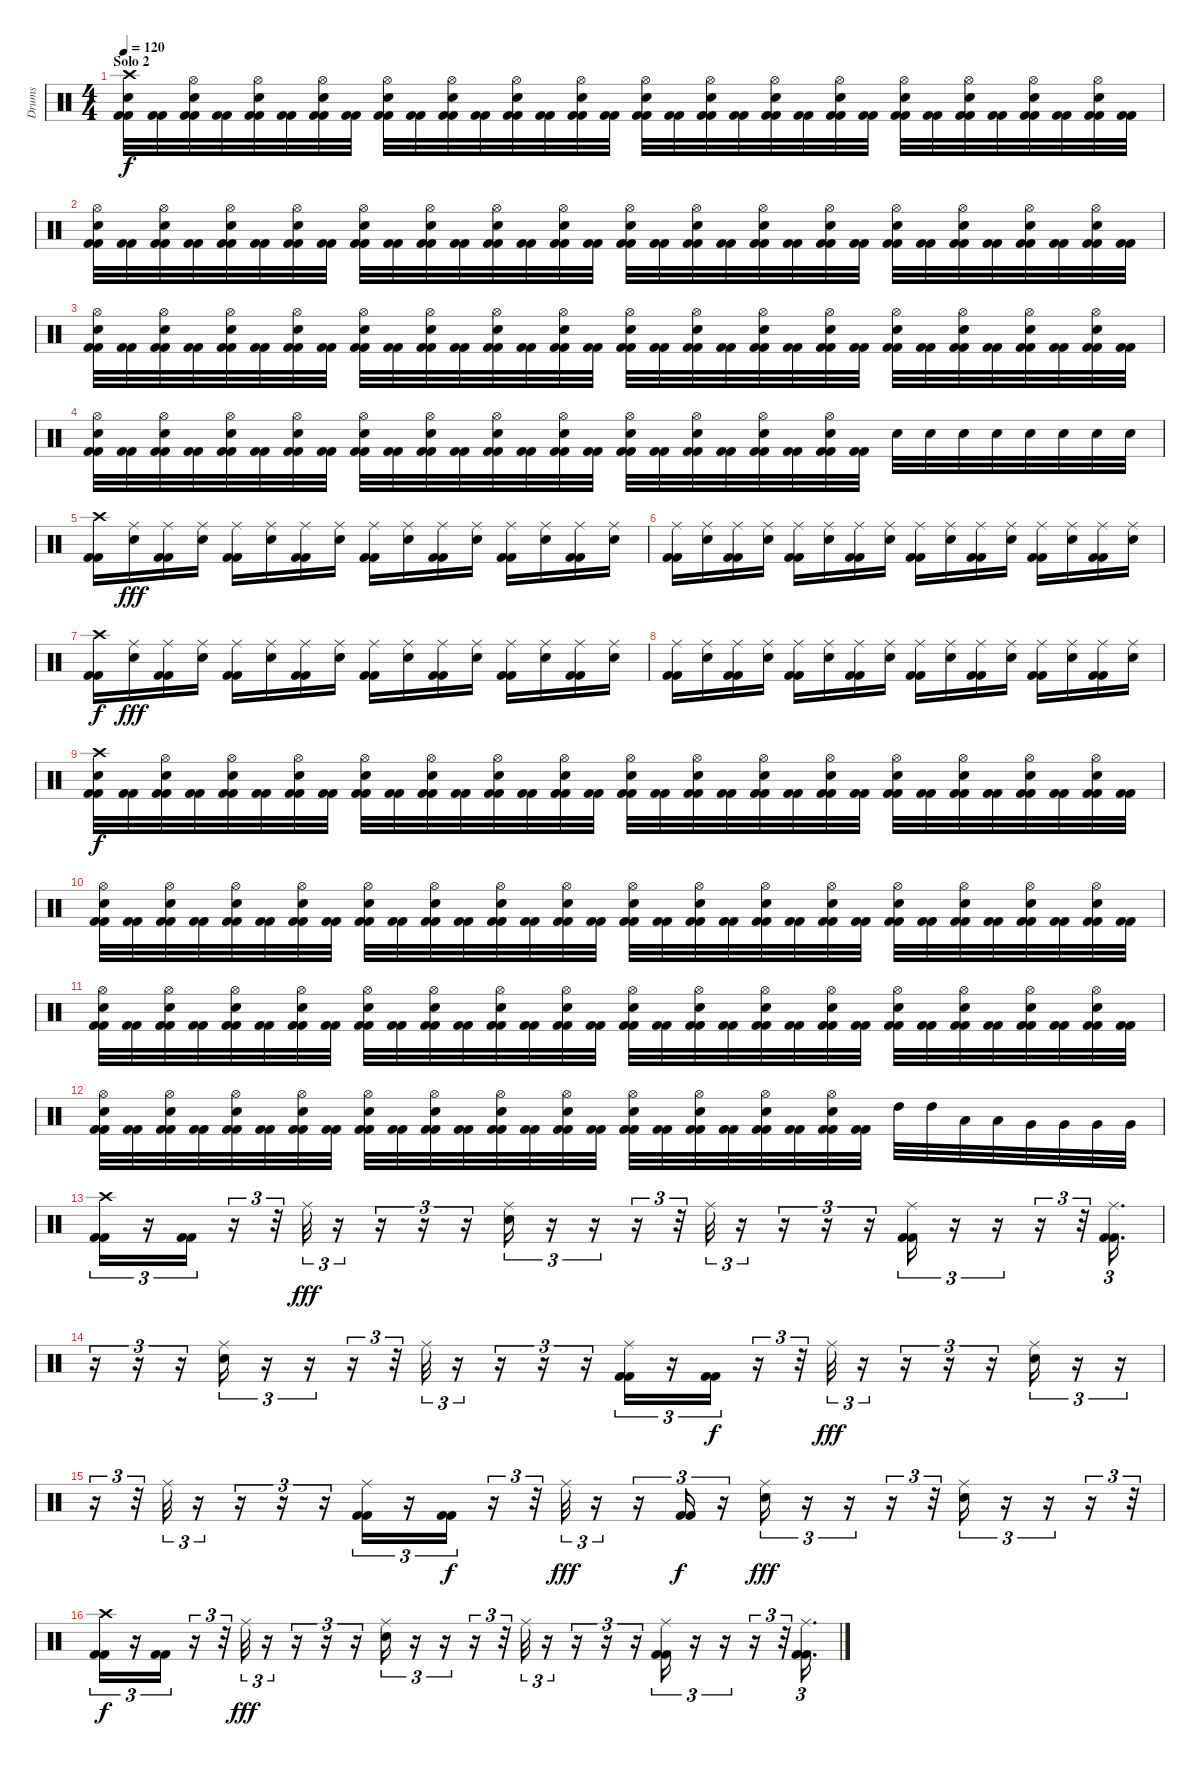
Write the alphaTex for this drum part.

\track ("Drums" "Drums") {instrument percussion}
\staff {score}
\articulation defaults
\ts (4 4)
\section ("" "Solo 2")
\tempo 120
\clef neutral
\ks c
("Kick (hit) 2" "Kick (hit) 2" "Electric Snare (hit)" "Crash high (hit)").32{dy f} ("Kick (hit) 2" "Kick (hit) 2").32 ("Kick (hit) 2" "Kick (hit) 2" "Electric Snare (hit)" "Hi-Hat (open)").32 ("Kick (hit) 2" "Kick (hit) 2").32 ("Kick (hit) 2" "Kick (hit) 2" "Electric Snare (hit)" "Hi-Hat (open)").32 ("Kick (hit) 2" "Kick (hit) 2").32 ("Kick (hit) 2" "Kick (hit) 2" "Electric Snare (hit)" "Hi-Hat (open)").32 ("Kick (hit) 2" "Kick (hit) 2").32 ("Kick (hit) 2" "Kick (hit) 2" "Electric Snare (hit)" "Hi-Hat (open)").32 ("Kick (hit) 2" "Kick (hit) 2").32 ("Kick (hit) 2" "Kick (hit) 2" "Electric Snare (hit)" "Hi-Hat (open)").32 ("Kick (hit) 2" "Kick (hit) 2").32 ("Kick (hit) 2" "Kick (hit) 2" "Electric Snare (hit)" "Hi-Hat (open)").32 ("Kick (hit) 2" "Kick (hit) 2").32 ("Kick (hit) 2" "Kick (hit) 2" "Electric Snare (hit)" "Hi-Hat (open)").32 ("Kick (hit) 2" "Kick (hit) 2").32 ("Kick (hit) 2" "Kick (hit) 2" "Electric Snare (hit)" "Hi-Hat (open)").32 ("Kick (hit) 2" "Kick (hit) 2").32 ("Kick (hit) 2" "Kick (hit) 2" "Electric Snare (hit)" "Hi-Hat (open)").32 ("Kick (hit) 2" "Kick (hit) 2").32 ("Kick (hit) 2" "Kick (hit) 2" "Electric Snare (hit)" "Hi-Hat (open)").32 ("Kick (hit) 2" "Kick (hit) 2").32 ("Kick (hit) 2" "Kick (hit) 2" "Electric Snare (hit)" "Hi-Hat (open)").32 ("Kick (hit) 2" "Kick (hit) 2").32 ("Kick (hit) 2" "Kick (hit) 2" "Electric Snare (hit)" "Hi-Hat (open)").32 ("Kick (hit) 2" "Kick (hit) 2").32 ("Kick (hit) 2" "Kick (hit) 2" "Electric Snare (hit)" "Hi-Hat (open)").32 ("Kick (hit) 2" "Kick (hit) 2").32 ("Kick (hit) 2" "Kick (hit) 2" "Electric Snare (hit)" "Hi-Hat (open)").32 ("Kick (hit) 2" "Kick (hit) 2").32 ("Kick (hit) 2" "Kick (hit) 2" "Electric Snare (hit)" "Hi-Hat (open)").32 ("Kick (hit) 2" "Kick (hit) 2").32 |
("Kick (hit) 2" "Kick (hit) 2" "Electric Snare (hit)" "Hi-Hat (open)").32 ("Kick (hit) 2" "Kick (hit) 2").32 ("Kick (hit) 2" "Kick (hit) 2" "Electric Snare (hit)" "Hi-Hat (open)").32 ("Kick (hit) 2" "Kick (hit) 2").32 ("Kick (hit) 2" "Kick (hit) 2" "Electric Snare (hit)" "Hi-Hat (open)").32 ("Kick (hit) 2" "Kick (hit) 2").32 ("Kick (hit) 2" "Kick (hit) 2" "Electric Snare (hit)" "Hi-Hat (open)").32 ("Kick (hit) 2" "Kick (hit) 2").32 ("Kick (hit) 2" "Kick (hit) 2" "Electric Snare (hit)" "Hi-Hat (open)").32 ("Kick (hit) 2" "Kick (hit) 2").32 ("Kick (hit) 2" "Kick (hit) 2" "Electric Snare (hit)" "Hi-Hat (open)").32 ("Kick (hit) 2" "Kick (hit) 2").32 ("Kick (hit) 2" "Kick (hit) 2" "Electric Snare (hit)" "Hi-Hat (open)").32 ("Kick (hit) 2" "Kick (hit) 2").32 ("Kick (hit) 2" "Kick (hit) 2" "Electric Snare (hit)" "Hi-Hat (open)").32 ("Kick (hit) 2" "Kick (hit) 2").32 ("Kick (hit) 2" "Kick (hit) 2" "Electric Snare (hit)" "Hi-Hat (open)").32 ("Kick (hit) 2" "Kick (hit) 2").32 ("Kick (hit) 2" "Kick (hit) 2" "Electric Snare (hit)" "Hi-Hat (open)").32 ("Kick (hit) 2" "Kick (hit) 2").32 ("Kick (hit) 2" "Kick (hit) 2" "Electric Snare (hit)" "Hi-Hat (open)").32 ("Kick (hit) 2" "Kick (hit) 2").32 ("Kick (hit) 2" "Kick (hit) 2" "Electric Snare (hit)" "Hi-Hat (open)").32 ("Kick (hit) 2" "Kick (hit) 2").32 ("Kick (hit) 2" "Kick (hit) 2" "Electric Snare (hit)" "Hi-Hat (open)").32 ("Kick (hit) 2" "Kick (hit) 2").32 ("Kick (hit) 2" "Kick (hit) 2" "Electric Snare (hit)" "Hi-Hat (open)").32 ("Kick (hit) 2" "Kick (hit) 2").32 ("Kick (hit) 2" "Kick (hit) 2" "Electric Snare (hit)" "Hi-Hat (open)").32 ("Kick (hit) 2" "Kick (hit) 2").32 ("Kick (hit) 2" "Kick (hit) 2" "Electric Snare (hit)" "Hi-Hat (open)").32 ("Kick (hit) 2" "Kick (hit) 2").32 |
("Kick (hit) 2" "Kick (hit) 2" "Electric Snare (hit)" "Hi-Hat (open)").32 ("Kick (hit) 2" "Kick (hit) 2").32 ("Kick (hit) 2" "Kick (hit) 2" "Electric Snare (hit)" "Hi-Hat (open)").32 ("Kick (hit) 2" "Kick (hit) 2").32 ("Kick (hit) 2" "Kick (hit) 2" "Electric Snare (hit)" "Hi-Hat (open)").32 ("Kick (hit) 2" "Kick (hit) 2").32 ("Kick (hit) 2" "Kick (hit) 2" "Electric Snare (hit)" "Hi-Hat (open)").32 ("Kick (hit) 2" "Kick (hit) 2").32 ("Kick (hit) 2" "Kick (hit) 2" "Electric Snare (hit)" "Hi-Hat (open)").32 ("Kick (hit) 2" "Kick (hit) 2").32 ("Kick (hit) 2" "Kick (hit) 2" "Electric Snare (hit)" "Hi-Hat (open)").32 ("Kick (hit) 2" "Kick (hit) 2").32 ("Kick (hit) 2" "Kick (hit) 2" "Electric Snare (hit)" "Hi-Hat (open)").32 ("Kick (hit) 2" "Kick (hit) 2").32 ("Kick (hit) 2" "Kick (hit) 2" "Electric Snare (hit)" "Hi-Hat (open)").32 ("Kick (hit) 2" "Kick (hit) 2").32 ("Kick (hit) 2" "Kick (hit) 2" "Electric Snare (hit)" "Hi-Hat (open)").32 ("Kick (hit) 2" "Kick (hit) 2").32 ("Kick (hit) 2" "Kick (hit) 2" "Electric Snare (hit)" "Hi-Hat (open)").32 ("Kick (hit) 2" "Kick (hit) 2").32 ("Kick (hit) 2" "Kick (hit) 2" "Electric Snare (hit)" "Hi-Hat (open)").32 ("Kick (hit) 2" "Kick (hit) 2").32 ("Kick (hit) 2" "Kick (hit) 2" "Electric Snare (hit)" "Hi-Hat (open)").32 ("Kick (hit) 2" "Kick (hit) 2").32 ("Kick (hit) 2" "Kick (hit) 2" "Electric Snare (hit)" "Hi-Hat (open)").32 ("Kick (hit) 2" "Kick (hit) 2").32 ("Kick (hit) 2" "Kick (hit) 2" "Electric Snare (hit)" "Hi-Hat (open)").32 ("Kick (hit) 2" "Kick (hit) 2").32 ("Kick (hit) 2" "Kick (hit) 2" "Electric Snare (hit)" "Hi-Hat (open)").32 ("Kick (hit) 2" "Kick (hit) 2").32 ("Kick (hit) 2" "Kick (hit) 2" "Electric Snare (hit)" "Hi-Hat (open)").32 ("Kick (hit) 2" "Kick (hit) 2").32 |
("Kick (hit) 2" "Kick (hit) 2" "Electric Snare (hit)" "Hi-Hat (open)").32 ("Kick (hit) 2" "Kick (hit) 2").32 ("Kick (hit) 2" "Kick (hit) 2" "Electric Snare (hit)" "Hi-Hat (open)").32 ("Kick (hit) 2" "Kick (hit) 2").32 ("Kick (hit) 2" "Kick (hit) 2" "Electric Snare (hit)" "Hi-Hat (open)").32 ("Kick (hit) 2" "Kick (hit) 2").32 ("Kick (hit) 2" "Kick (hit) 2" "Electric Snare (hit)" "Hi-Hat (open)").32 ("Kick (hit) 2" "Kick (hit) 2").32 ("Kick (hit) 2" "Kick (hit) 2" "Electric Snare (hit)" "Hi-Hat (open)").32 ("Kick (hit) 2" "Kick (hit) 2").32 ("Kick (hit) 2" "Kick (hit) 2" "Electric Snare (hit)" "Hi-Hat (open)").32 ("Kick (hit) 2" "Kick (hit) 2").32 ("Kick (hit) 2" "Kick (hit) 2" "Electric Snare (hit)" "Hi-Hat (open)").32 ("Kick (hit) 2" "Kick (hit) 2").32 ("Kick (hit) 2" "Kick (hit) 2" "Electric Snare (hit)" "Hi-Hat (open)").32 ("Kick (hit) 2" "Kick (hit) 2").32 ("Kick (hit) 2" "Kick (hit) 2" "Electric Snare (hit)" "Hi-Hat (open)").32 ("Kick (hit) 2" "Kick (hit) 2").32 ("Kick (hit) 2" "Kick (hit) 2" "Electric Snare (hit)" "Hi-Hat (open)").32 ("Kick (hit) 2" "Kick (hit) 2").32 ("Kick (hit) 2" "Kick (hit) 2" "Electric Snare (hit)" "Hi-Hat (open)").32 ("Kick (hit) 2" "Kick (hit) 2").32 ("Kick (hit) 2" "Kick (hit) 2" "Electric Snare (hit)" "Hi-Hat (open)").32 ("Kick (hit) 2" "Kick (hit) 2").32 "Electric Snare (hit)".32 "Electric Snare (hit)".32 "Electric Snare (hit)".32 "Electric Snare (hit)".32 "Electric Snare (hit)".32 "Electric Snare (hit)".32 "Electric Snare (hit)".32 "Electric Snare (hit)".32 |
("Kick (hit) 2" "Kick (hit) 2" "Crash high (hit)").16 ("Electric Snare (hit)" "Ride (middle)").16{dy fff} ("Kick (hit) 2" "Kick (hit) 2" "Ride (middle)").16 ("Electric Snare (hit)" "Ride (middle)").16 ("Kick (hit) 2" "Kick (hit) 2" "Ride (middle)").16 ("Electric Snare (hit)" "Ride (middle)").16 ("Kick (hit) 2" "Kick (hit) 2" "Ride (middle)").16 ("Electric Snare (hit)" "Ride (middle)").16 ("Kick (hit) 2" "Kick (hit) 2" "Ride (middle)").16 ("Electric Snare (hit)" "Ride (middle)").16 ("Kick (hit) 2" "Kick (hit) 2" "Ride (middle)").16 ("Electric Snare (hit)" "Ride (middle)").16 ("Kick (hit) 2" "Kick (hit) 2" "Ride (middle)").16 ("Electric Snare (hit)" "Ride (middle)").16 ("Kick (hit) 2" "Kick (hit) 2" "Ride (middle)").16 ("Electric Snare (hit)" "Ride (middle)").16 |
("Kick (hit) 2" "Kick (hit) 2" "Ride (middle)").16 ("Electric Snare (hit)" "Ride (middle)").16 ("Kick (hit) 2" "Kick (hit) 2" "Ride (middle)").16 ("Electric Snare (hit)" "Ride (middle)").16 ("Kick (hit) 2" "Kick (hit) 2" "Ride (middle)").16 ("Electric Snare (hit)" "Ride (middle)").16 ("Kick (hit) 2" "Kick (hit) 2" "Ride (middle)").16 ("Electric Snare (hit)" "Ride (middle)").16 ("Kick (hit) 2" "Kick (hit) 2" "Ride (middle)").16 ("Electric Snare (hit)" "Ride (middle)").16 ("Kick (hit) 2" "Kick (hit) 2" "Ride (middle)").16 ("Electric Snare (hit)" "Ride (middle)").16 ("Kick (hit) 2" "Kick (hit) 2" "Ride (middle)").16 ("Electric Snare (hit)" "Ride (middle)").16 ("Kick (hit) 2" "Kick (hit) 2" "Ride (middle)").16 ("Electric Snare (hit)" "Ride (middle)").16 |
("Kick (hit) 2" "Kick (hit) 2" "Crash high (hit)").16{dy f} ("Electric Snare (hit)" "Ride (middle)").16{dy fff} ("Kick (hit) 2" "Kick (hit) 2" "Ride (middle)").16 ("Electric Snare (hit)" "Ride (middle)").16 ("Kick (hit) 2" "Kick (hit) 2" "Ride (middle)").16 ("Electric Snare (hit)" "Ride (middle)").16 ("Kick (hit) 2" "Kick (hit) 2" "Ride (middle)").16 ("Electric Snare (hit)" "Ride (middle)").16 ("Kick (hit) 2" "Kick (hit) 2" "Ride (middle)").16 ("Electric Snare (hit)" "Ride (middle)").16 ("Kick (hit) 2" "Kick (hit) 2" "Ride (middle)").16 ("Electric Snare (hit)" "Ride (middle)").16 ("Kick (hit) 2" "Kick (hit) 2" "Ride (middle)").16 ("Electric Snare (hit)" "Ride (middle)").16 ("Kick (hit) 2" "Kick (hit) 2" "Ride (middle)").16 ("Electric Snare (hit)" "Ride (middle)").16 |
("Kick (hit) 2" "Kick (hit) 2" "Ride (middle)").16 ("Electric Snare (hit)" "Ride (middle)").16 ("Kick (hit) 2" "Kick (hit) 2" "Ride (middle)").16 ("Electric Snare (hit)" "Ride (middle)").16 ("Kick (hit) 2" "Kick (hit) 2" "Ride (middle)").16 ("Electric Snare (hit)" "Ride (middle)").16 ("Kick (hit) 2" "Kick (hit) 2" "Ride (middle)").16 ("Electric Snare (hit)" "Ride (middle)").16 ("Kick (hit) 2" "Kick (hit) 2" "Ride (middle)").16 ("Electric Snare (hit)" "Ride (middle)").16 ("Kick (hit) 2" "Kick (hit) 2" "Ride (middle)").16 ("Electric Snare (hit)" "Ride (middle)").16 ("Kick (hit) 2" "Kick (hit) 2" "Ride (middle)").16 ("Electric Snare (hit)" "Ride (middle)").16 ("Kick (hit) 2" "Kick (hit) 2" "Ride (middle)").16 ("Electric Snare (hit)" "Ride (middle)").16 |
("Kick (hit) 2" "Kick (hit) 2" "Electric Snare (hit)" "Crash high (hit)").32{dy f} ("Kick (hit) 2" "Kick (hit) 2").32 ("Kick (hit) 2" "Kick (hit) 2" "Electric Snare (hit)" "Hi-Hat (open)").32 ("Kick (hit) 2" "Kick (hit) 2").32 ("Kick (hit) 2" "Kick (hit) 2" "Electric Snare (hit)" "Hi-Hat (open)").32 ("Kick (hit) 2" "Kick (hit) 2").32 ("Kick (hit) 2" "Kick (hit) 2" "Electric Snare (hit)" "Hi-Hat (open)").32 ("Kick (hit) 2" "Kick (hit) 2").32 ("Kick (hit) 2" "Kick (hit) 2" "Electric Snare (hit)" "Hi-Hat (open)").32 ("Kick (hit) 2" "Kick (hit) 2").32 ("Kick (hit) 2" "Kick (hit) 2" "Electric Snare (hit)" "Hi-Hat (open)").32 ("Kick (hit) 2" "Kick (hit) 2").32 ("Kick (hit) 2" "Kick (hit) 2" "Electric Snare (hit)" "Hi-Hat (open)").32 ("Kick (hit) 2" "Kick (hit) 2").32 ("Kick (hit) 2" "Kick (hit) 2" "Electric Snare (hit)" "Hi-Hat (open)").32 ("Kick (hit) 2" "Kick (hit) 2").32 ("Kick (hit) 2" "Kick (hit) 2" "Electric Snare (hit)" "Hi-Hat (open)").32 ("Kick (hit) 2" "Kick (hit) 2").32 ("Kick (hit) 2" "Kick (hit) 2" "Electric Snare (hit)" "Hi-Hat (open)").32 ("Kick (hit) 2" "Kick (hit) 2").32 ("Kick (hit) 2" "Kick (hit) 2" "Electric Snare (hit)" "Hi-Hat (open)").32 ("Kick (hit) 2" "Kick (hit) 2").32 ("Kick (hit) 2" "Kick (hit) 2" "Electric Snare (hit)" "Hi-Hat (open)").32 ("Kick (hit) 2" "Kick (hit) 2").32 ("Kick (hit) 2" "Kick (hit) 2" "Electric Snare (hit)" "Hi-Hat (open)").32 ("Kick (hit) 2" "Kick (hit) 2").32 ("Kick (hit) 2" "Kick (hit) 2" "Electric Snare (hit)" "Hi-Hat (open)").32 ("Kick (hit) 2" "Kick (hit) 2").32 ("Kick (hit) 2" "Kick (hit) 2" "Electric Snare (hit)" "Hi-Hat (open)").32 ("Kick (hit) 2" "Kick (hit) 2").32 ("Kick (hit) 2" "Kick (hit) 2" "Electric Snare (hit)" "Hi-Hat (open)").32 ("Kick (hit) 2" "Kick (hit) 2").32 |
("Kick (hit) 2" "Kick (hit) 2" "Electric Snare (hit)" "Hi-Hat (open)").32 ("Kick (hit) 2" "Kick (hit) 2").32 ("Kick (hit) 2" "Kick (hit) 2" "Electric Snare (hit)" "Hi-Hat (open)").32 ("Kick (hit) 2" "Kick (hit) 2").32 ("Kick (hit) 2" "Kick (hit) 2" "Electric Snare (hit)" "Hi-Hat (open)").32 ("Kick (hit) 2" "Kick (hit) 2").32 ("Kick (hit) 2" "Kick (hit) 2" "Electric Snare (hit)" "Hi-Hat (open)").32 ("Kick (hit) 2" "Kick (hit) 2").32 ("Kick (hit) 2" "Kick (hit) 2" "Electric Snare (hit)" "Hi-Hat (open)").32 ("Kick (hit) 2" "Kick (hit) 2").32 ("Kick (hit) 2" "Kick (hit) 2" "Electric Snare (hit)" "Hi-Hat (open)").32 ("Kick (hit) 2" "Kick (hit) 2").32 ("Kick (hit) 2" "Kick (hit) 2" "Electric Snare (hit)" "Hi-Hat (open)").32 ("Kick (hit) 2" "Kick (hit) 2").32 ("Kick (hit) 2" "Kick (hit) 2" "Electric Snare (hit)" "Hi-Hat (open)").32 ("Kick (hit) 2" "Kick (hit) 2").32 ("Kick (hit) 2" "Kick (hit) 2" "Electric Snare (hit)" "Hi-Hat (open)").32 ("Kick (hit) 2" "Kick (hit) 2").32 ("Kick (hit) 2" "Kick (hit) 2" "Electric Snare (hit)" "Hi-Hat (open)").32 ("Kick (hit) 2" "Kick (hit) 2").32 ("Kick (hit) 2" "Kick (hit) 2" "Electric Snare (hit)" "Hi-Hat (open)").32 ("Kick (hit) 2" "Kick (hit) 2").32 ("Kick (hit) 2" "Kick (hit) 2" "Electric Snare (hit)" "Hi-Hat (open)").32 ("Kick (hit) 2" "Kick (hit) 2").32 ("Kick (hit) 2" "Kick (hit) 2" "Electric Snare (hit)" "Hi-Hat (open)").32 ("Kick (hit) 2" "Kick (hit) 2").32 ("Kick (hit) 2" "Kick (hit) 2" "Electric Snare (hit)" "Hi-Hat (open)").32 ("Kick (hit) 2" "Kick (hit) 2").32 ("Kick (hit) 2" "Kick (hit) 2" "Electric Snare (hit)" "Hi-Hat (open)").32 ("Kick (hit) 2" "Kick (hit) 2").32 ("Kick (hit) 2" "Kick (hit) 2" "Electric Snare (hit)" "Hi-Hat (open)").32 ("Kick (hit) 2" "Kick (hit) 2").32 |
("Kick (hit) 2" "Kick (hit) 2" "Electric Snare (hit)" "Hi-Hat (open)").32 ("Kick (hit) 2" "Kick (hit) 2").32 ("Kick (hit) 2" "Kick (hit) 2" "Electric Snare (hit)" "Hi-Hat (open)").32 ("Kick (hit) 2" "Kick (hit) 2").32 ("Kick (hit) 2" "Kick (hit) 2" "Electric Snare (hit)" "Hi-Hat (open)").32 ("Kick (hit) 2" "Kick (hit) 2").32 ("Kick (hit) 2" "Kick (hit) 2" "Electric Snare (hit)" "Hi-Hat (open)").32 ("Kick (hit) 2" "Kick (hit) 2").32 ("Kick (hit) 2" "Kick (hit) 2" "Electric Snare (hit)" "Hi-Hat (open)").32 ("Kick (hit) 2" "Kick (hit) 2").32 ("Kick (hit) 2" "Kick (hit) 2" "Electric Snare (hit)" "Hi-Hat (open)").32 ("Kick (hit) 2" "Kick (hit) 2").32 ("Kick (hit) 2" "Kick (hit) 2" "Electric Snare (hit)" "Hi-Hat (open)").32 ("Kick (hit) 2" "Kick (hit) 2").32 ("Kick (hit) 2" "Kick (hit) 2" "Electric Snare (hit)" "Hi-Hat (open)").32 ("Kick (hit) 2" "Kick (hit) 2").32 ("Kick (hit) 2" "Kick (hit) 2" "Electric Snare (hit)" "Hi-Hat (open)").32 ("Kick (hit) 2" "Kick (hit) 2").32 ("Kick (hit) 2" "Kick (hit) 2" "Electric Snare (hit)" "Hi-Hat (open)").32 ("Kick (hit) 2" "Kick (hit) 2").32 ("Kick (hit) 2" "Kick (hit) 2" "Electric Snare (hit)" "Hi-Hat (open)").32 ("Kick (hit) 2" "Kick (hit) 2").32 ("Kick (hit) 2" "Kick (hit) 2" "Electric Snare (hit)" "Hi-Hat (open)").32 ("Kick (hit) 2" "Kick (hit) 2").32 ("Kick (hit) 2" "Kick (hit) 2" "Electric Snare (hit)" "Hi-Hat (open)").32 ("Kick (hit) 2" "Kick (hit) 2").32 ("Kick (hit) 2" "Kick (hit) 2" "Electric Snare (hit)" "Hi-Hat (open)").32 ("Kick (hit) 2" "Kick (hit) 2").32 ("Kick (hit) 2" "Kick (hit) 2" "Electric Snare (hit)" "Hi-Hat (open)").32 ("Kick (hit) 2" "Kick (hit) 2").32 ("Kick (hit) 2" "Kick (hit) 2" "Electric Snare (hit)" "Hi-Hat (open)").32 ("Kick (hit) 2" "Kick (hit) 2").32 |
("Kick (hit) 2" "Kick (hit) 2" "Electric Snare (hit)" "Hi-Hat (open)").32 ("Kick (hit) 2" "Kick (hit) 2").32 ("Kick (hit) 2" "Kick (hit) 2" "Electric Snare (hit)" "Hi-Hat (open)").32 ("Kick (hit) 2" "Kick (hit) 2").32 ("Kick (hit) 2" "Kick (hit) 2" "Electric Snare (hit)" "Hi-Hat (open)").32 ("Kick (hit) 2" "Kick (hit) 2").32 ("Kick (hit) 2" "Kick (hit) 2" "Electric Snare (hit)" "Hi-Hat (open)").32 ("Kick (hit) 2" "Kick (hit) 2").32 ("Kick (hit) 2" "Kick (hit) 2" "Electric Snare (hit)" "Hi-Hat (open)").32 ("Kick (hit) 2" "Kick (hit) 2").32 ("Kick (hit) 2" "Kick (hit) 2" "Electric Snare (hit)" "Hi-Hat (open)").32 ("Kick (hit) 2" "Kick (hit) 2").32 ("Kick (hit) 2" "Kick (hit) 2" "Electric Snare (hit)" "Hi-Hat (open)").32 ("Kick (hit) 2" "Kick (hit) 2").32 ("Kick (hit) 2" "Kick (hit) 2" "Electric Snare (hit)" "Hi-Hat (open)").32 ("Kick (hit) 2" "Kick (hit) 2").32 ("Kick (hit) 2" "Kick (hit) 2" "Electric Snare (hit)" "Hi-Hat (open)").32 ("Kick (hit) 2" "Kick (hit) 2").32 ("Kick (hit) 2" "Kick (hit) 2" "Electric Snare (hit)" "Hi-Hat (open)").32 ("Kick (hit) 2" "Kick (hit) 2").32 ("Kick (hit) 2" "Kick (hit) 2" "Electric Snare (hit)" "Hi-Hat (open)").32 ("Kick (hit) 2" "Kick (hit) 2").32 ("Kick (hit) 2" "Kick (hit) 2" "Electric Snare (hit)" "Hi-Hat (open)").32 ("Kick (hit) 2" "Kick (hit) 2").32 "High Tom (hit)".32 "High Tom (hit)".32 "Low Tom (hit)".32 "Low Tom (hit)".32 "Very Low Tom (hit)".32 "Very Low Tom (hit)".32 "Very Low Tom (hit)".32 "Very Low Tom (hit)".32 |
("Kick (hit) 2" "Kick (hit) 2" "Crash high (hit)").16{tu (3 2)} r.16{tu (3 2)} ("Kick (hit) 2" "Kick (hit) 2").16{tu (3 2)} r.16{tu (3 2)} r.32{tu (3 2)} "Ride (middle)".32{tu (3 2) dy fff} r.16{tu (3 2)} r.16{tu (3 2)} r.16{tu (3 2)} r.16{tu (3 2)} ("Electric Snare (hit)" "Ride (middle)").16{tu (3 2)} r.16{tu (3 2)} r.16{tu (3 2)} r.16{tu (3 2)} r.32{tu (3 2)} "Ride (middle)".32{tu (3 2)} r.16{tu (3 2)} r.16{tu (3 2)} r.16{tu (3 2)} r.16{tu (3 2)} ("Kick (hit) 2" "Kick (hit) 2" "Ride (middle)").16{tu (3 2)} r.16{tu (3 2)} r.16{tu (3 2)} r.16{tu (3 2)} r.32{tu (3 2)} ("Kick (hit) 2" "Kick (hit) 2" "Ride (middle)").16{d tu (3 2)} |
r.16{tu (3 2)} r.16{tu (3 2)} r.16{tu (3 2)} ("Electric Snare (hit)" "Ride (middle)").16{tu (3 2)} r.16{tu (3 2)} r.16{tu (3 2)} r.16{tu (3 2)} r.32{tu (3 2)} "Ride (middle)".32{tu (3 2)} r.16{tu (3 2)} r.16{tu (3 2)} r.16{tu (3 2)} r.16{tu (3 2)} ("Kick (hit) 2" "Kick (hit) 2" "Ride (middle)").16{tu (3 2)} r.16{tu (3 2)} ("Kick (hit) 2" "Kick (hit) 2").16{tu (3 2) dy f} r.16{tu (3 2)} r.32{tu (3 2)} "Ride (middle)".32{tu (3 2) dy fff} r.16{tu (3 2)} r.16{tu (3 2)} r.16{tu (3 2)} r.16{tu (3 2)} ("Electric Snare (hit)" "Ride (middle)").16{tu (3 2)} r.16{tu (3 2)} r.16{tu (3 2)} |
r.16{tu (3 2)} r.32{tu (3 2)} "Ride (middle)".32{tu (3 2)} r.16{tu (3 2)} r.16{tu (3 2)} r.16{tu (3 2)} r.16{tu (3 2)} ("Kick (hit) 2" "Kick (hit) 2" "Ride (middle)").16{tu (3 2)} r.16{tu (3 2)} ("Kick (hit) 2" "Kick (hit) 2").16{tu (3 2) dy f} r.16{tu (3 2)} r.32{tu (3 2)} "Ride (middle)".32{tu (3 2) dy fff} r.16{tu (3 2)} r.16{tu (3 2)} ("Kick (hit) 2" "Kick (hit) 2").16{tu (3 2) dy f} r.16{tu (3 2)} ("Electric Snare (hit)" "Ride (middle)").16{tu (3 2) dy fff} r.16{tu (3 2)} r.16{tu (3 2)} r.16{tu (3 2)} r.32{tu (3 2)} ("Electric Snare (hit)" "Ride (middle)").16{tu (3 2)} r.16{tu (3 2)} r.16{tu (3 2)} r.16{tu (3 2)} r.32{tu (3 2)} |
("Kick (hit) 2" "Kick (hit) 2" "Crash high (hit)").16{tu (3 2) dy f} r.16{tu (3 2)} ("Kick (hit) 2" "Kick (hit) 2").16{tu (3 2)} r.16{tu (3 2)} r.32{tu (3 2)} "Ride (middle)".32{tu (3 2) dy fff} r.16{tu (3 2)} r.16{tu (3 2)} r.16{tu (3 2)} r.16{tu (3 2)} ("Electric Snare (hit)" "Ride (middle)").16{tu (3 2)} r.16{tu (3 2)} r.16{tu (3 2)} r.16{tu (3 2)} r.32{tu (3 2)} "Ride (middle)".32{tu (3 2)} r.16{tu (3 2)} r.16{tu (3 2)} r.16{tu (3 2)} r.16{tu (3 2)} ("Kick (hit) 2" "Kick (hit) 2" "Ride (middle)").16{tu (3 2)} r.16{tu (3 2)} r.16{tu (3 2)} r.16{tu (3 2)} r.32{tu (3 2)} ("Kick (hit) 2" "Kick (hit) 2" "Ride (middle)").16{d tu (3 2)}
